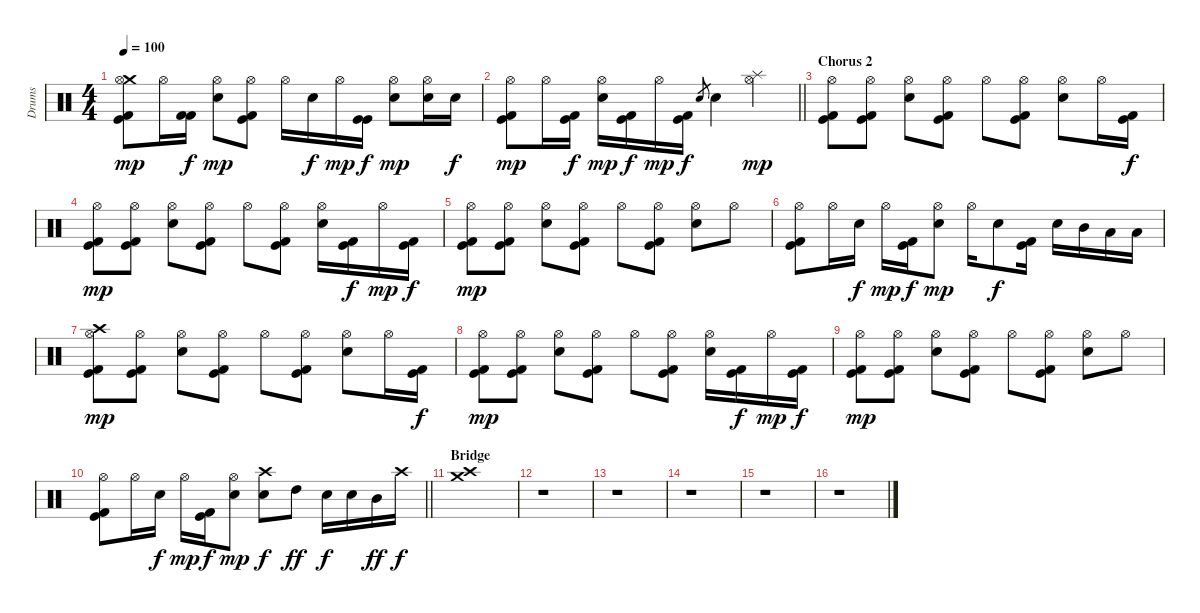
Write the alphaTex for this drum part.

\track ("Drums" "Drums") {instrument percussion}
\staff {score}
\articulation defaults
\ts (4 4)
\tempo 100
\clef neutral
\ks c
("Crash medium (hit)" "Hi-Hat (open)" "Kick (hit)" "Kick (hit) 2").8{dy mp} "Hi-Hat (open)".16 ("Kick (hit) 2" "Kick (hit) 2").16{dy f} ("Hi-Hat (open)" "Snare (hit) 2").8{dy mp} ("Hi-Hat (open)" "Kick (hit)" "Kick (hit) 2").8 "Hi-Hat (open)".16 "Snare (hit) 2".16{dy f} "Hi-Hat (open)".16{dy mp} ("Kick (hit)" "Kick (hit)").16{dy f} ("Hi-Hat (open)" "Snare (hit) 2").8{dy mp} ("Hi-Hat (open)" "Snare (hit) 2").16 "Snare (hit) 2".16{dy f} |
\barLineRight lightlight
("Hi-Hat (open)" "Kick (hit)" "Kick (hit) 2").8{dy mp} "Hi-Hat (open)".16 ("Kick (hit)" "Kick (hit) 2").16{dy f} ("Hi-Hat (open)" "Snare (hit) 2").16{dy mp} ("Kick (hit)" "Kick (hit) 2").16{dy f} "Hi-Hat (open)".16{dy mp} ("Kick (hit)" "Kick (hit) 2").16{dy f} "Snare (hit) 2".8{gr} "Snare (hit) 2".4 ("Splash (hit)" "Hi-Hat (open)").4{dy mp} |
\section ("" "Chorus 2")
("Hi-Hat (open)" "Kick (hit)" "Kick (hit) 2").8 ("Hi-Hat (open)" "Kick (hit)" "Kick (hit) 2").8 ("Hi-Hat (open)" "Snare (hit) 2").8 ("Hi-Hat (open)" "Kick (hit)" "Kick (hit) 2").8 "Hi-Hat (open)".8 ("Hi-Hat (open)" "Kick (hit)" "Kick (hit) 2").8 ("Hi-Hat (open)" "Snare (hit) 2").8 "Hi-Hat (open)".16 ("Kick (hit)" "Kick (hit) 2").16{dy f} |
("Hi-Hat (open)" "Kick (hit)" "Kick (hit) 2").8{dy mp} ("Hi-Hat (open)" "Kick (hit)" "Kick (hit) 2").8 ("Hi-Hat (open)" "Snare (hit) 2").8 ("Hi-Hat (open)" "Kick (hit)" "Kick (hit) 2").8 "Hi-Hat (open)".8 ("Hi-Hat (open)" "Kick (hit)" "Kick (hit) 2").8 ("Hi-Hat (open)" "Snare (hit) 2").16 ("Kick (hit)" "Kick (hit) 2").16{dy f} "Hi-Hat (open)".16{dy mp} ("Kick (hit)" "Kick (hit) 2").16{dy f} |
("Hi-Hat (open)" "Kick (hit)" "Kick (hit) 2").8{dy mp} ("Hi-Hat (open)" "Kick (hit)" "Kick (hit) 2").8 ("Hi-Hat (open)" "Snare (hit) 2").8 ("Hi-Hat (open)" "Kick (hit)" "Kick (hit) 2").8 "Hi-Hat (open)".8 ("Hi-Hat (open)" "Kick (hit)" "Kick (hit) 2").8 ("Hi-Hat (open)" "Snare (hit) 2").8 "Hi-Hat (open)".8 |
("Hi-Hat (open)" "Kick (hit)" "Kick (hit) 2").8 "Hi-Hat (open)".16 "Snare (hit) 2".16{dy f} "Hi-Hat (open)".16{dy mp} ("Kick (hit)" "Kick (hit) 2").16{dy f} ("Hi-Hat (open)" "Snare (hit) 2").8{dy mp} "Hi-Hat (open)".16 "Snare (hit) 2".8{dy f} ("Kick (hit)" "Kick (hit) 2").16 "Snare (hit) 2".16 "Mid Tom (hit)".16 "Low Tom (hit)".16 "Low Tom (hit)".16 |
("Crash high (hit)" "Hi-Hat (open)" "Kick (hit)" "Kick (hit) 2").8{dy mp} ("Hi-Hat (open)" "Kick (hit)" "Kick (hit) 2").8 ("Hi-Hat (open)" "Snare (hit) 2").8 ("Hi-Hat (open)" "Kick (hit)" "Kick (hit) 2").8 "Hi-Hat (open)".8 ("Hi-Hat (open)" "Kick (hit)" "Kick (hit) 2").8 ("Hi-Hat (open)" "Snare (hit) 2").8 "Hi-Hat (open)".16 ("Kick (hit)" "Kick (hit) 2").16{dy f} |
("Hi-Hat (open)" "Kick (hit)" "Kick (hit) 2").8{dy mp} ("Hi-Hat (open)" "Kick (hit)" "Kick (hit) 2").8 ("Hi-Hat (open)" "Snare (hit) 2").8 ("Hi-Hat (open)" "Kick (hit)" "Kick (hit) 2").8 "Hi-Hat (open)".8 ("Hi-Hat (open)" "Kick (hit)" "Kick (hit) 2").8 ("Hi-Hat (open)" "Snare (hit) 2").16 ("Kick (hit)" "Kick (hit) 2").16{dy f} "Hi-Hat (open)".16{dy mp} ("Kick (hit)" "Kick (hit) 2").16{dy f} |
("Hi-Hat (open)" "Kick (hit)" "Kick (hit) 2").8{dy mp} ("Hi-Hat (open)" "Kick (hit)" "Kick (hit) 2").8 ("Hi-Hat (open)" "Snare (hit) 2").8 ("Hi-Hat (open)" "Kick (hit)" "Kick (hit) 2").8 "Hi-Hat (open)".8 ("Hi-Hat (open)" "Kick (hit)" "Kick (hit) 2").8 ("Hi-Hat (open)" "Snare (hit) 2").8 "Hi-Hat (open)".8 |
\barLineRight lightlight
("Hi-Hat (open)" "Kick (hit)" "Kick (hit) 2").8 "Hi-Hat (open)".16 "Snare (hit) 2".16{dy f} "Hi-Hat (open)".16{dy mp} ("Kick (hit)" "Kick (hit) 2").16{dy f} ("Hi-Hat (open)" "Snare (hit) 2").8{dy mp} ("Crash high (hit)" "Snare (hit) 2").8{dy f} "High Tom (hit)".8{dy ff} "Snare (hit) 2".16{dy f} "Snare (hit) 2".16 "Mid Tom (hit)".16{dy ff} "Crash high (hit)".16{dy f} |
\section ("" "Bridge")
("Crash high (hit)" "Crash medium (hit)").1 |
r.1 |
r.1 |
r.1 |
r.1 |
r.1
